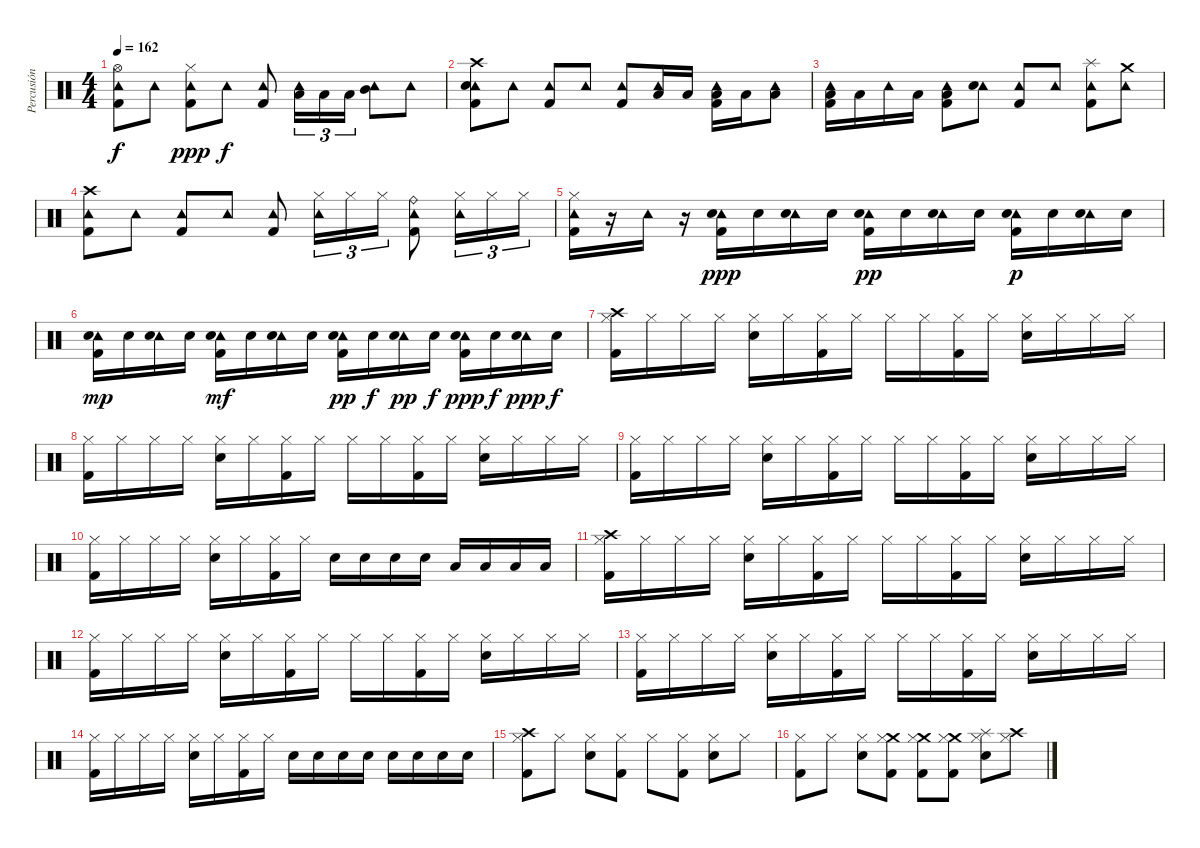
\track ("Percusión" "Percusión") {instrument percussion}
\staff {score}
\articulation defaults
\ts (4 4)
\tempo 162
\clef neutral
\ks c
("Hi-Hat (open)" "Tambourine (hit)" "Kick (hit) 2").8{dy f} "Tambourine (hit)".8 ("Hi-Hat (closed)" "Tambourine (hit)" "Kick (hit) 2").8{dy ppp} "Tambourine (hit)".8{dy f} ("Tambourine (hit)" "Kick (hit) 2").8 ("Tambourine (hit)" "Low Tom (hit)").16{tu (3 2)} "Low Tom (hit)".16{tu (3 2)} "Low Tom (hit)".16{tu (3 2)} ("Tambourine (hit)" "Mid Tom (hit)").8 "Tambourine (hit)".8 |
("Crash high (hit)" "Tambourine (hit)" "Kick (hit) 2" "Snare (hit) 2").8 "Tambourine (hit)".8 ("Tambourine (hit)" "Kick (hit) 2").8 "Tambourine (hit)".8 ("Tambourine (hit)" "Kick (hit) 2").8 ("Tambourine (hit)" "Low Floor Tom (hit)").16 "Low Tom (hit)".16 ("Tambourine (hit)" "Kick (hit) 2" "Low Floor Tom (hit)").16 "Low Tom (hit)".16 ("Tambourine (hit)" "Low Tom (hit)").8 |
("Tambourine (hit)" "Kick (hit) 2" "Low Floor Tom (hit)").16 "Low Tom (hit)".16 "Tambourine (hit)".16 "Low Floor Tom (hit)".16 ("Tambourine (hit)" "Kick (hit) 2" "Low Tom (hit)").8 ("Tambourine (hit)" "Snare (hit) 2").8 ("Tambourine (hit)" "Kick (hit) 2").8 "Tambourine (hit)".8 ("Tambourine (hit)" "Kick (hit) 2" "Splash (hit)").8 ("Tambourine (hit)" "Crash medium (hit)").8 |
("Tambourine (hit)" "Kick (hit) 2" "Crash high (hit)").8 "Tambourine (hit)".8 ("Tambourine (hit)" "Kick (hit) 2").8 "Tambourine (hit)".8 ("Tambourine (hit)" "Kick (hit) 2").8 ("Tambourine (hit)" "Hi-Hat (closed)").16{tu (3 2)} "Hi-Hat (closed)".16{tu (3 2)} "Hi-Hat (closed)".16{tu (3 2)} ("Tambourine (hit)" "Kick (hit) 2" "Ride (bell)").8 ("Tambourine (hit)" "Hi-Hat (closed)").16{tu (3 2)} "Hi-Hat (closed)".16{tu (3 2)} "Hi-Hat (closed)".16{tu (3 2)} |
("Tambourine (hit)" "Kick (hit) 2" "Hi-Hat (closed)").16 r.16 "Tambourine (hit)".16 r.16 ("Tambourine (hit)" "Kick (hit) 2" "Snare (hit) 2").16{dy ppp} "Snare (hit) 2".16 ("Tambourine (hit)" "Snare (hit) 2").16 "Snare (hit) 2".16 ("Tambourine (hit)" "Kick (hit) 2" "Snare (hit) 2").16{dy pp} "Snare (hit) 2".16 ("Tambourine (hit)" "Snare (hit) 2").16 "Snare (hit) 2".16 ("Tambourine (hit)" "Kick (hit) 2" "Snare (hit) 2").16{dy p} "Snare (hit) 2".16 ("Tambourine (hit)" "Snare (hit) 2").16 "Snare (hit) 2".16 |
("Tambourine (hit)" "Kick (hit) 2" "Snare (hit) 2").16{dy mp} "Snare (hit) 2".16 ("Tambourine (hit)" "Snare (hit) 2").16 "Snare (hit) 2".16 ("Tambourine (hit)" "Kick (hit) 2" "Snare (hit) 2").16{dy mf} "Snare (hit) 2".16 ("Tambourine (hit)" "Snare (hit) 2").16 "Snare (hit) 2".16 ("Tambourine (hit)" "Kick (hit) 2" "Snare (hit) 2").16{dy pp} "Snare (hit) 2".16{dy f} ("Tambourine (hit)" "Snare (hit) 2").16{dy pp} "Snare (hit) 2".16{dy f} ("Tambourine (hit)" "Kick (hit) 2" "Snare (hit) 2").16{dy ppp} "Snare (hit) 2".16{dy f} ("Tambourine (hit)" "Snare (hit) 2").16{dy ppp} "Snare (hit) 2".16{dy f} |
("Crash high (hit)" "Hi-Hat (closed)" "Kick (hit) 2").16 "Hi-Hat (closed)".16 "Hi-Hat (closed)".16 "Hi-Hat (closed)".16 ("Hi-Hat (closed)" "Snare (hit) 2").16 "Hi-Hat (closed)".16 ("Hi-Hat (closed)" "Kick (hit) 2").16 "Hi-Hat (closed)".16 "Hi-Hat (closed)".16 "Hi-Hat (closed)".16 ("Hi-Hat (closed)" "Kick (hit) 2").16 "Hi-Hat (closed)".16 ("Hi-Hat (closed)" "Snare (hit) 2").16 "Hi-Hat (closed)".16 "Hi-Hat (closed)".16 "Hi-Hat (closed)".16 |
("Hi-Hat (closed)" "Kick (hit) 2").16 "Hi-Hat (closed)".16 "Hi-Hat (closed)".16 "Hi-Hat (closed)".16 ("Hi-Hat (closed)" "Snare (hit) 2").16 "Hi-Hat (closed)".16 ("Hi-Hat (closed)" "Kick (hit) 2").16 "Hi-Hat (closed)".16 "Hi-Hat (closed)".16 "Hi-Hat (closed)".16 ("Hi-Hat (closed)" "Kick (hit) 2").16 "Hi-Hat (closed)".16 ("Hi-Hat (closed)" "Snare (hit) 2").16 "Hi-Hat (closed)".16 "Hi-Hat (closed)".16 "Hi-Hat (closed)".16 |
("Hi-Hat (closed)" "Kick (hit) 2").16 "Hi-Hat (closed)".16 "Hi-Hat (closed)".16 "Hi-Hat (closed)".16 ("Hi-Hat (closed)" "Snare (hit) 2").16 "Hi-Hat (closed)".16 ("Hi-Hat (closed)" "Kick (hit) 2").16 "Hi-Hat (closed)".16 "Hi-Hat (closed)".16 "Hi-Hat (closed)".16 ("Hi-Hat (closed)" "Kick (hit) 2").16 "Hi-Hat (closed)".16 ("Hi-Hat (closed)" "Snare (hit) 2").16 "Hi-Hat (closed)".16 "Hi-Hat (closed)".16 "Hi-Hat (closed)".16 |
("Hi-Hat (closed)" "Kick (hit) 2").16 "Hi-Hat (closed)".16 "Hi-Hat (closed)".16 "Hi-Hat (closed)".16 ("Hi-Hat (closed)" "Snare (hit) 2").16 "Hi-Hat (closed)".16 ("Hi-Hat (closed)" "Kick (hit) 2").16 "Hi-Hat (closed)".16 "Snare (hit) 2".16 "Snare (hit) 2".16 "Snare (hit) 2".16 "Snare (hit) 2".16 "Low Tom (hit)".16 "Low Tom (hit)".16 "Low Tom (hit)".16 "Low Tom (hit)".16 |
("Crash high (hit)" "Hi-Hat (closed)" "Kick (hit) 2").16 "Hi-Hat (closed)".16 "Hi-Hat (closed)".16 "Hi-Hat (closed)".16 ("Hi-Hat (closed)" "Snare (hit) 2").16 "Hi-Hat (closed)".16 ("Hi-Hat (closed)" "Kick (hit) 2").16 "Hi-Hat (closed)".16 "Hi-Hat (closed)".16 "Hi-Hat (closed)".16 ("Hi-Hat (closed)" "Kick (hit) 2").16 "Hi-Hat (closed)".16 ("Hi-Hat (closed)" "Snare (hit) 2").16 "Hi-Hat (closed)".16 "Hi-Hat (closed)".16 "Hi-Hat (closed)".16 |
("Hi-Hat (closed)" "Kick (hit) 2").16 "Hi-Hat (closed)".16 "Hi-Hat (closed)".16 "Hi-Hat (closed)".16 ("Hi-Hat (closed)" "Snare (hit) 2").16 "Hi-Hat (closed)".16 ("Hi-Hat (closed)" "Kick (hit) 2").16 "Hi-Hat (closed)".16 "Hi-Hat (closed)".16 "Hi-Hat (closed)".16 ("Hi-Hat (closed)" "Kick (hit) 2").16 "Hi-Hat (closed)".16 ("Hi-Hat (closed)" "Snare (hit) 2").16 "Hi-Hat (closed)".16 "Hi-Hat (closed)".16 "Hi-Hat (closed)".16 |
("Hi-Hat (closed)" "Kick (hit) 2").16 "Hi-Hat (closed)".16 "Hi-Hat (closed)".16 "Hi-Hat (closed)".16 ("Hi-Hat (closed)" "Snare (hit) 2").16 "Hi-Hat (closed)".16 ("Hi-Hat (closed)" "Kick (hit) 2").16 "Hi-Hat (closed)".16 "Hi-Hat (closed)".16 "Hi-Hat (closed)".16 ("Hi-Hat (closed)" "Kick (hit) 2").16 "Hi-Hat (closed)".16 ("Hi-Hat (closed)" "Snare (hit) 2").16 "Hi-Hat (closed)".16 "Hi-Hat (closed)".16 "Hi-Hat (closed)".16 |
("Hi-Hat (closed)" "Kick (hit) 2").16 "Hi-Hat (closed)".16 "Hi-Hat (closed)".16 "Hi-Hat (closed)".16 ("Hi-Hat (closed)" "Snare (hit) 2").16 "Hi-Hat (closed)".16 ("Hi-Hat (closed)" "Kick (hit) 2").16 "Hi-Hat (closed)".16 "Snare (hit) 2".16 "Snare (hit) 2".16 "Snare (hit) 2".16 "Snare (hit) 2".16 "Snare (hit) 2".16 "Snare (hit) 2".16 "Snare (hit) 2".16 "Snare (hit) 2".16 |
("Crash high (hit)" "Hi-Hat (closed)" "Kick (hit) 2").8 "Hi-Hat (closed)".8 ("Hi-Hat (closed)" "Snare (hit) 2").8 ("Hi-Hat (closed)" "Kick (hit) 2").8 "Hi-Hat (closed)".8 ("Hi-Hat (closed)" "Kick (hit) 2").8 ("Hi-Hat (closed)" "Snare (hit) 2").8 "Hi-Hat (closed)".8 |
("Hi-Hat (closed)" "Kick (hit) 2").8 "Hi-Hat (closed)".8 ("Hi-Hat (closed)" "Snare (hit) 2").8 ("Crash medium (hit)" "Hi-Hat (closed)" "Kick (hit) 2").8 ("Crash medium (hit)" "Hi-Hat (closed)" "Kick (hit) 2").8 ("Crash medium (hit)" "Hi-Hat (closed)" "Kick (hit) 2").8 ("Splash (hit)" "Hi-Hat (closed)" "Snare (hit) 2").8 ("Crash high (hit)" "Hi-Hat (closed)").8
